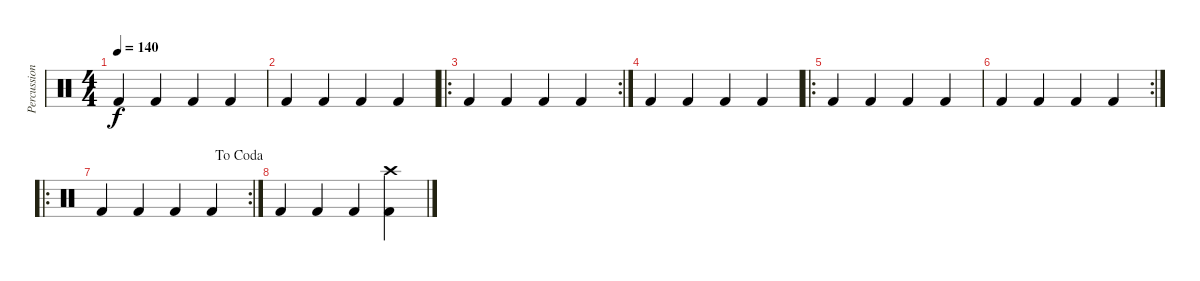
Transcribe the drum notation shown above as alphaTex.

\track ("Percussion" "Percussion") {instrument percussion}
\staff {score}
\articulation defaults
\ts (4 4)
\tempo 140
\clef neutral
\ks c "Kick (hit) 2".4{dy f} "Kick (hit) 2".4 "Kick (hit) 2".4 "Kick (hit) 2".4
|
"Kick (hit) 2".4 "Kick (hit) 2".4 "Kick (hit) 2".4 "Kick (hit) 2".4 |
\ro
\rc 2 "Kick (hit) 2".4 "Kick (hit) 2".4 "Kick (hit) 2".4 "Kick (hit) 2".4
|
"Kick (hit) 2".4 "Kick (hit) 2".4 "Kick (hit) 2".4 "Kick (hit) 2".4 |
\ro "Kick (hit) 2".4 "Kick (hit) 2".4 "Kick (hit) 2".4 "Kick (hit) 2".4
|
\rc 2 "Kick (hit) 2".4 "Kick (hit) 2".4 "Kick (hit) 2".4 "Kick (hit) 2".4
|
\ro
\rc 2
\jump dacoda "Kick (hit) 2".4 "Kick (hit) 2".4 "Kick (hit) 2".4 "Kick (hit) 2".4
|
"Kick (hit) 2".4 "Kick (hit) 2".4 "Kick (hit) 2".4 ("Crash high (hit)" "Kick (hit) 2").4
